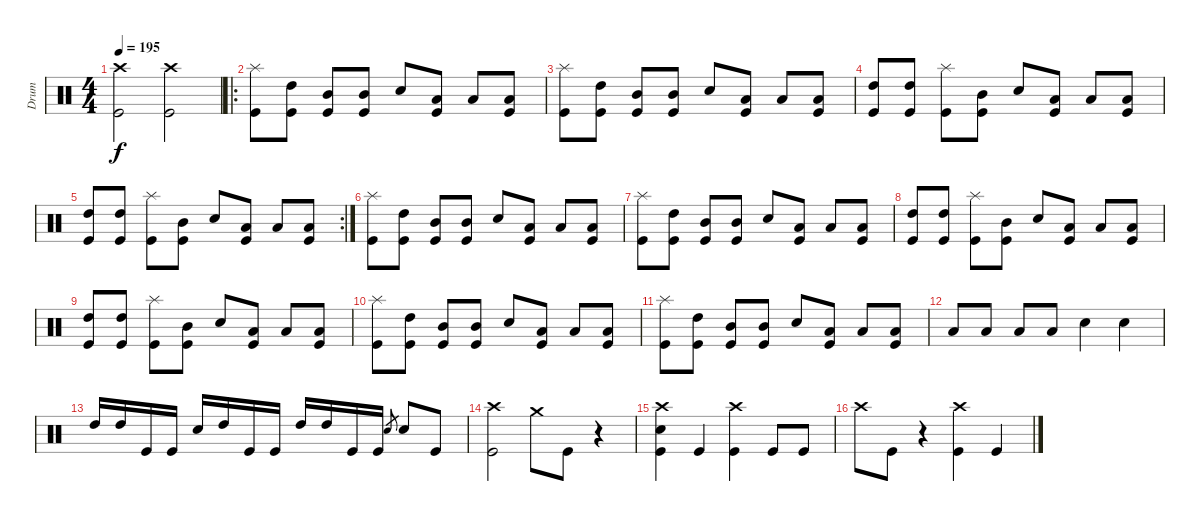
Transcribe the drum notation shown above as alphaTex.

\track ("Drum" "Drum") {instrument percussion}
\staff {score}
\articulation defaults
\ts (4 4)
\tempo 195
\clef neutral
\ks c
("Crash high (hit)" "Kick (hit)").2{dy f} ("Crash high (hit)" "Kick (hit)").2 |
\ro
("Splash (hit)" "Kick (hit)").8 ("High Tom (hit)" "Kick (hit)").8 ("Mid Tom (hit)" "Kick (hit)").8 ("Mid Tom (hit)" "Kick (hit)").8 "Snare (hit) 2".8 ("Low Tom (hit)" "Kick (hit)").8 "Low Tom (hit)".8 ("Low Tom (hit)" "Kick (hit)").8 |
("Splash (hit)" "Kick (hit)").8 ("High Tom (hit)" "Kick (hit)").8 ("Mid Tom (hit)" "Kick (hit)").8 ("Mid Tom (hit)" "Kick (hit)").8 "Snare (hit) 2".8 ("Low Tom (hit)" "Kick (hit)").8 "Low Tom (hit)".8 ("Low Tom (hit)" "Kick (hit)").8 |
("High Tom (hit)" "Kick (hit)").8 ("High Tom (hit)" "Kick (hit)").8 ("Splash (hit)" "Kick (hit)").8 ("Mid Tom (hit)" "Kick (hit)").8 "Snare (hit) 2".8 ("Low Tom (hit)" "Kick (hit)").8 "Low Tom (hit)".8 ("Low Tom (hit)" "Kick (hit)").8 |
\rc 2
("High Tom (hit)" "Kick (hit)").8 ("High Tom (hit)" "Kick (hit)").8 ("Splash (hit)" "Kick (hit)").8 ("Mid Tom (hit)" "Kick (hit)").8 "Snare (hit) 2".8 ("Low Tom (hit)" "Kick (hit)").8 "Low Tom (hit)".8 ("Low Tom (hit)" "Kick (hit)").8 |
("Splash (hit)" "Kick (hit)").8 ("High Tom (hit)" "Kick (hit)").8 ("Mid Tom (hit)" "Kick (hit)").8 ("Mid Tom (hit)" "Kick (hit)").8 "Snare (hit) 2".8 ("Low Tom (hit)" "Kick (hit)").8 "Low Tom (hit)".8 ("Low Tom (hit)" "Kick (hit)").8 |
("Splash (hit)" "Kick (hit)").8 ("High Tom (hit)" "Kick (hit)").8 ("Mid Tom (hit)" "Kick (hit)").8 ("Mid Tom (hit)" "Kick (hit)").8 "Snare (hit) 2".8 ("Low Tom (hit)" "Kick (hit)").8 "Low Tom (hit)".8 ("Low Tom (hit)" "Kick (hit)").8 |
("High Tom (hit)" "Kick (hit)").8 ("High Tom (hit)" "Kick (hit)").8 ("Splash (hit)" "Kick (hit)").8 ("Mid Tom (hit)" "Kick (hit)").8 "Snare (hit) 2".8 ("Low Tom (hit)" "Kick (hit)").8 "Low Tom (hit)".8 ("Low Tom (hit)" "Kick (hit)").8 |
("High Tom (hit)" "Kick (hit)").8 ("High Tom (hit)" "Kick (hit)").8 ("Splash (hit)" "Kick (hit)").8 ("Mid Tom (hit)" "Kick (hit)").8 "Snare (hit) 2".8 ("Low Tom (hit)" "Kick (hit)").8 "Low Tom (hit)".8 ("Low Tom (hit)" "Kick (hit)").8 |
("Splash (hit)" "Kick (hit)").8 ("High Tom (hit)" "Kick (hit)").8 ("Mid Tom (hit)" "Kick (hit)").8 ("Mid Tom (hit)" "Kick (hit)").8 "Snare (hit) 2".8 ("Low Tom (hit)" "Kick (hit)").8 "Low Tom (hit)".8 ("Low Tom (hit)" "Kick (hit)").8 |
("Splash (hit)" "Kick (hit)").8 ("High Tom (hit)" "Kick (hit)").8 ("Mid Tom (hit)" "Kick (hit)").8 ("Mid Tom (hit)" "Kick (hit)").8 "Snare (hit) 2".8 ("Low Tom (hit)" "Kick (hit)").8 "Low Tom (hit)".8 ("Low Tom (hit)" "Kick (hit)").8 |
"Low Tom (hit)".8 "Low Tom (hit)".8 "Low Tom (hit)".8 "Low Tom (hit)".8 "Snare (hit) 2".4 "Snare (hit) 2".4 |
"High Tom (hit)".16 "High Tom (hit)".16 "Kick (hit)".16 "Kick (hit)".16 "Snare (hit) 2".16 "High Tom (hit)".16 "Kick (hit)".16 "Kick (hit)".16 "High Tom (hit)".16 "High Tom (hit)".16 "Kick (hit)".16 "Kick (hit)".16 "Snare (hit) 2".8{gr} "Snare (hit) 2".8 "Kick (hit)".8 |
("Crash high (hit)" "Kick (hit)").2 "Crash medium (hit)".8 "Kick (hit)".8 r.4 |
("Crash high (hit)" "Snare (hit) 2" "Kick (hit)").4 "Kick (hit)".4 ("Crash high (hit)" "Kick (hit)").4 "Kick (hit)".8 "Kick (hit)".8 |
"Crash high (hit)".8 "Kick (hit)".8 r.4 ("Crash high (hit)" "Kick (hit)").4 "Kick (hit)".4
